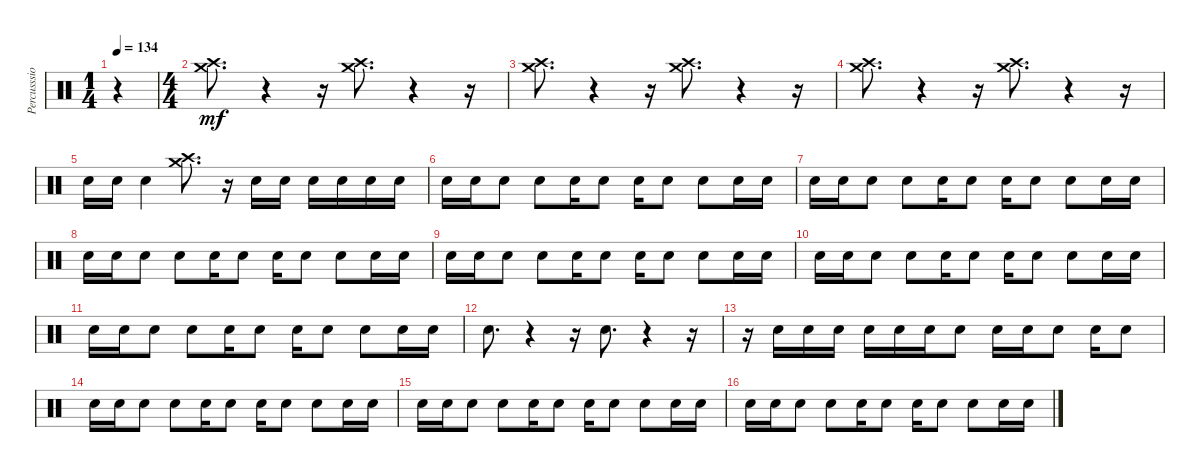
\track ("Percusssion" "Percusssio") {instrument percussion}
\staff {score}
\articulation defaults
\ts (1 4)
\tempo 134
\clef neutral
\ks c
r.4{dy mf} |
\ts (4 4)
("Crash high (hit)" "Crash medium (hit)").8{d} r.4 r.16 ("Crash high (hit)" "Crash medium (hit)").8{d} r.4 r.16 |
("Crash high (hit)" "Crash medium (hit)").8{d} r.4 r.16 ("Crash high (hit)" "Crash medium (hit)").8{d} r.4 r.16 |
("Crash high (hit)" "Crash medium (hit)").8{d} r.4 r.16 ("Crash high (hit)" "Crash medium (hit)").8{d} r.4 r.16 |
"Snare (hit) 2".16 "Snare (hit) 2".16 "Snare (hit) 2".4 ("Crash high (hit)" "Crash medium (hit)").8{d} r.16 "Snare (hit) 2".16 "Snare (hit) 2".16 "Snare (hit) 2".16 "Snare (hit) 2".16 "Snare (hit) 2".16 "Snare (hit) 2".16 |
"Snare (hit) 2".16 "Snare (hit) 2".16 "Snare (hit) 2".8 "Snare (hit) 2".8 "Snare (hit) 2".16 "Snare (hit) 2".8 "Snare (hit) 2".16 "Snare (hit) 2".8 "Snare (hit) 2".8 "Snare (hit) 2".16 "Snare (hit) 2".16 |
"Snare (hit) 2".16 "Snare (hit) 2".16 "Snare (hit) 2".8 "Snare (hit) 2".8 "Snare (hit) 2".16 "Snare (hit) 2".8 "Snare (hit) 2".16 "Snare (hit) 2".8 "Snare (hit) 2".8 "Snare (hit) 2".16 "Snare (hit) 2".16 |
"Snare (hit) 2".16 "Snare (hit) 2".16 "Snare (hit) 2".8 "Snare (hit) 2".8 "Snare (hit) 2".16 "Snare (hit) 2".8 "Snare (hit) 2".16 "Snare (hit) 2".8 "Snare (hit) 2".8 "Snare (hit) 2".16 "Snare (hit) 2".16 |
"Snare (hit) 2".16 "Snare (hit) 2".16 "Snare (hit) 2".8 "Snare (hit) 2".8 "Snare (hit) 2".16 "Snare (hit) 2".8 "Snare (hit) 2".16 "Snare (hit) 2".8 "Snare (hit) 2".8 "Snare (hit) 2".16 "Snare (hit) 2".16 |
"Snare (hit) 2".16 "Snare (hit) 2".16 "Snare (hit) 2".8 "Snare (hit) 2".8 "Snare (hit) 2".16 "Snare (hit) 2".8 "Snare (hit) 2".16 "Snare (hit) 2".8 "Snare (hit) 2".8 "Snare (hit) 2".16 "Snare (hit) 2".16 |
"Snare (hit) 2".16 "Snare (hit) 2".16 "Snare (hit) 2".8 "Snare (hit) 2".8 "Snare (hit) 2".16 "Snare (hit) 2".8 "Snare (hit) 2".16 "Snare (hit) 2".8 "Snare (hit) 2".8 "Snare (hit) 2".16 "Snare (hit) 2".16 |
"Snare (hit) 2".8{d} r.4 r.16 "Snare (hit) 2".8{d} r.4 r.16 |
r.16 "Snare (hit) 2".16 "Snare (hit) 2".16 "Snare (hit) 2".16 "Snare (hit) 2".16 "Snare (hit) 2".16 "Snare (hit) 2".16 "Snare (hit) 2".8 "Snare (hit) 2".16 "Snare (hit) 2".16 "Snare (hit) 2".8 "Snare (hit) 2".16 "Snare (hit) 2".8 |
"Snare (hit) 2".16 "Snare (hit) 2".16 "Snare (hit) 2".8 "Snare (hit) 2".8 "Snare (hit) 2".16 "Snare (hit) 2".8 "Snare (hit) 2".16 "Snare (hit) 2".8 "Snare (hit) 2".8 "Snare (hit) 2".16 "Snare (hit) 2".16 |
"Snare (hit) 2".16 "Snare (hit) 2".16 "Snare (hit) 2".8 "Snare (hit) 2".8 "Snare (hit) 2".16 "Snare (hit) 2".8 "Snare (hit) 2".16 "Snare (hit) 2".8 "Snare (hit) 2".8 "Snare (hit) 2".16 "Snare (hit) 2".16 |
"Snare (hit) 2".16 "Snare (hit) 2".16 "Snare (hit) 2".8 "Snare (hit) 2".8 "Snare (hit) 2".16 "Snare (hit) 2".8 "Snare (hit) 2".16 "Snare (hit) 2".8 "Snare (hit) 2".8 "Snare (hit) 2".16 "Snare (hit) 2".16
